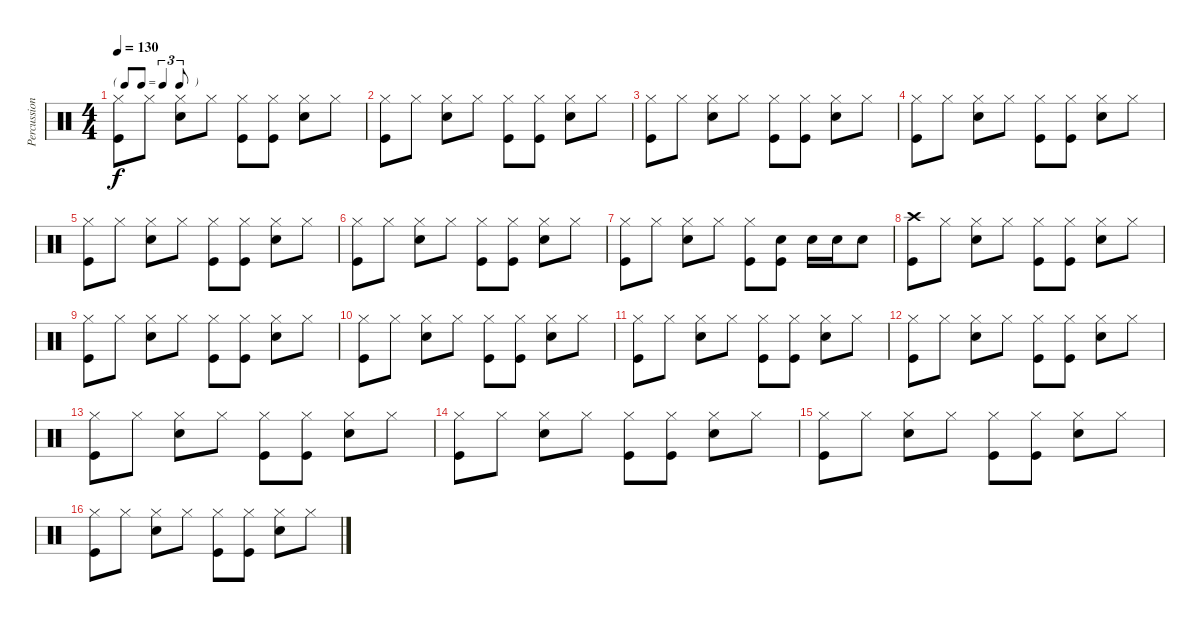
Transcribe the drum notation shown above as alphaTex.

\track ("Percussion" "Percussion") {instrument percussion}
\staff {score}
\articulation defaults
\ts (4 4)
\tf triplet8th
\tempo 130
\clef neutral
\ks c
("Hi-Hat (closed)" "Kick (hit)").8{dy f} "Hi-Hat (closed)".8 ("Hi-Hat (closed)" "Snare (hit) 2").8 "Hi-Hat (closed)".8 ("Hi-Hat (closed)" "Kick (hit)").8 ("Hi-Hat (closed)" "Kick (hit)").8 ("Hi-Hat (closed)" "Snare (hit) 2").8 "Hi-Hat (closed)".8 |
("Hi-Hat (closed)" "Kick (hit)").8 "Hi-Hat (closed)".8 ("Hi-Hat (closed)" "Snare (hit) 2").8 "Hi-Hat (closed)".8 ("Hi-Hat (closed)" "Kick (hit)").8 ("Hi-Hat (closed)" "Kick (hit)").8 ("Hi-Hat (closed)" "Snare (hit) 2").8 "Hi-Hat (closed)".8 |
("Hi-Hat (closed)" "Kick (hit)").8 "Hi-Hat (closed)".8 ("Hi-Hat (closed)" "Snare (hit) 2").8 "Hi-Hat (closed)".8 ("Hi-Hat (closed)" "Kick (hit)").8 ("Hi-Hat (closed)" "Kick (hit)").8 ("Hi-Hat (closed)" "Snare (hit) 2").8 "Hi-Hat (closed)".8 |
("Hi-Hat (closed)" "Kick (hit)").8 "Hi-Hat (closed)".8 ("Hi-Hat (closed)" "Snare (hit) 2").8 "Hi-Hat (closed)".8 ("Hi-Hat (closed)" "Kick (hit)").8 ("Hi-Hat (closed)" "Kick (hit)").8 ("Hi-Hat (closed)" "Snare (hit) 2").8 "Hi-Hat (closed)".8 |
("Hi-Hat (closed)" "Kick (hit)").8 "Hi-Hat (closed)".8 ("Hi-Hat (closed)" "Snare (hit) 2").8 "Hi-Hat (closed)".8 ("Hi-Hat (closed)" "Kick (hit)").8 ("Hi-Hat (closed)" "Kick (hit)").8 ("Hi-Hat (closed)" "Snare (hit) 2").8 "Hi-Hat (closed)".8 |
("Hi-Hat (closed)" "Kick (hit)").8 "Hi-Hat (closed)".8 ("Hi-Hat (closed)" "Snare (hit) 2").8 "Hi-Hat (closed)".8 ("Hi-Hat (closed)" "Kick (hit)").8 ("Hi-Hat (closed)" "Kick (hit)").8 ("Hi-Hat (closed)" "Snare (hit) 2").8 "Hi-Hat (closed)".8 |
("Hi-Hat (closed)" "Kick (hit)").8 "Hi-Hat (closed)".8 ("Hi-Hat (closed)" "Snare (hit) 2").8 "Hi-Hat (closed)".8 ("Hi-Hat (closed)" "Kick (hit)").8 ("Snare (hit) 2" "Kick (hit)").8 "Snare (hit) 2".16 "Snare (hit) 2".16 "Snare (hit) 2".8 |
("Crash high (hit)" "Kick (hit)").8 "Hi-Hat (closed)".8 ("Hi-Hat (closed)" "Snare (hit) 2").8 "Hi-Hat (closed)".8 ("Hi-Hat (closed)" "Kick (hit)").8 ("Hi-Hat (closed)" "Kick (hit)").8 ("Hi-Hat (closed)" "Snare (hit) 2").8 "Hi-Hat (closed)".8 |
("Hi-Hat (closed)" "Kick (hit)").8 "Hi-Hat (closed)".8 ("Hi-Hat (closed)" "Snare (hit) 2").8 "Hi-Hat (closed)".8 ("Hi-Hat (closed)" "Kick (hit)").8 ("Hi-Hat (closed)" "Kick (hit)").8 ("Hi-Hat (closed)" "Snare (hit) 2").8 "Hi-Hat (closed)".8 |
("Hi-Hat (closed)" "Kick (hit)").8 "Hi-Hat (closed)".8 ("Hi-Hat (closed)" "Snare (hit) 2").8 "Hi-Hat (closed)".8 ("Hi-Hat (closed)" "Kick (hit)").8 ("Hi-Hat (closed)" "Kick (hit)").8 ("Hi-Hat (closed)" "Snare (hit) 2").8 "Hi-Hat (closed)".8 |
("Hi-Hat (closed)" "Kick (hit)").8 "Hi-Hat (closed)".8 ("Hi-Hat (closed)" "Snare (hit) 2").8 "Hi-Hat (closed)".8 ("Hi-Hat (closed)" "Kick (hit)").8 ("Hi-Hat (closed)" "Kick (hit)").8 ("Hi-Hat (closed)" "Snare (hit) 2").8 "Hi-Hat (closed)".8 |
("Hi-Hat (closed)" "Kick (hit)").8 "Hi-Hat (closed)".8 ("Hi-Hat (closed)" "Snare (hit) 2").8 "Hi-Hat (closed)".8 ("Hi-Hat (closed)" "Kick (hit)").8 ("Hi-Hat (closed)" "Kick (hit)").8 ("Hi-Hat (closed)" "Snare (hit) 2").8 "Hi-Hat (closed)".8 |
("Hi-Hat (closed)" "Kick (hit)").8 "Hi-Hat (closed)".8 ("Hi-Hat (closed)" "Snare (hit) 2").8 "Hi-Hat (closed)".8 ("Hi-Hat (closed)" "Kick (hit)").8 ("Hi-Hat (closed)" "Kick (hit)").8 ("Hi-Hat (closed)" "Snare (hit) 2").8 "Hi-Hat (closed)".8 |
("Hi-Hat (closed)" "Kick (hit)").8 "Hi-Hat (closed)".8 ("Hi-Hat (closed)" "Snare (hit) 2").8 "Hi-Hat (closed)".8 ("Hi-Hat (closed)" "Kick (hit)").8 ("Hi-Hat (closed)" "Kick (hit)").8 ("Hi-Hat (closed)" "Snare (hit) 2").8 "Hi-Hat (closed)".8 |
("Hi-Hat (closed)" "Kick (hit)").8 "Hi-Hat (closed)".8 ("Hi-Hat (closed)" "Snare (hit) 2").8 "Hi-Hat (closed)".8 ("Hi-Hat (closed)" "Kick (hit)").8 ("Hi-Hat (closed)" "Kick (hit)").8 ("Hi-Hat (closed)" "Snare (hit) 2").8 "Hi-Hat (closed)".8 |
("Hi-Hat (closed)" "Kick (hit)").8 "Hi-Hat (closed)".8 ("Hi-Hat (closed)" "Snare (hit) 2").8 "Hi-Hat (closed)".8 ("Hi-Hat (closed)" "Kick (hit)").8 ("Hi-Hat (closed)" "Kick (hit)").8 ("Hi-Hat (closed)" "Snare (hit) 2").8 "Hi-Hat (closed)".8
